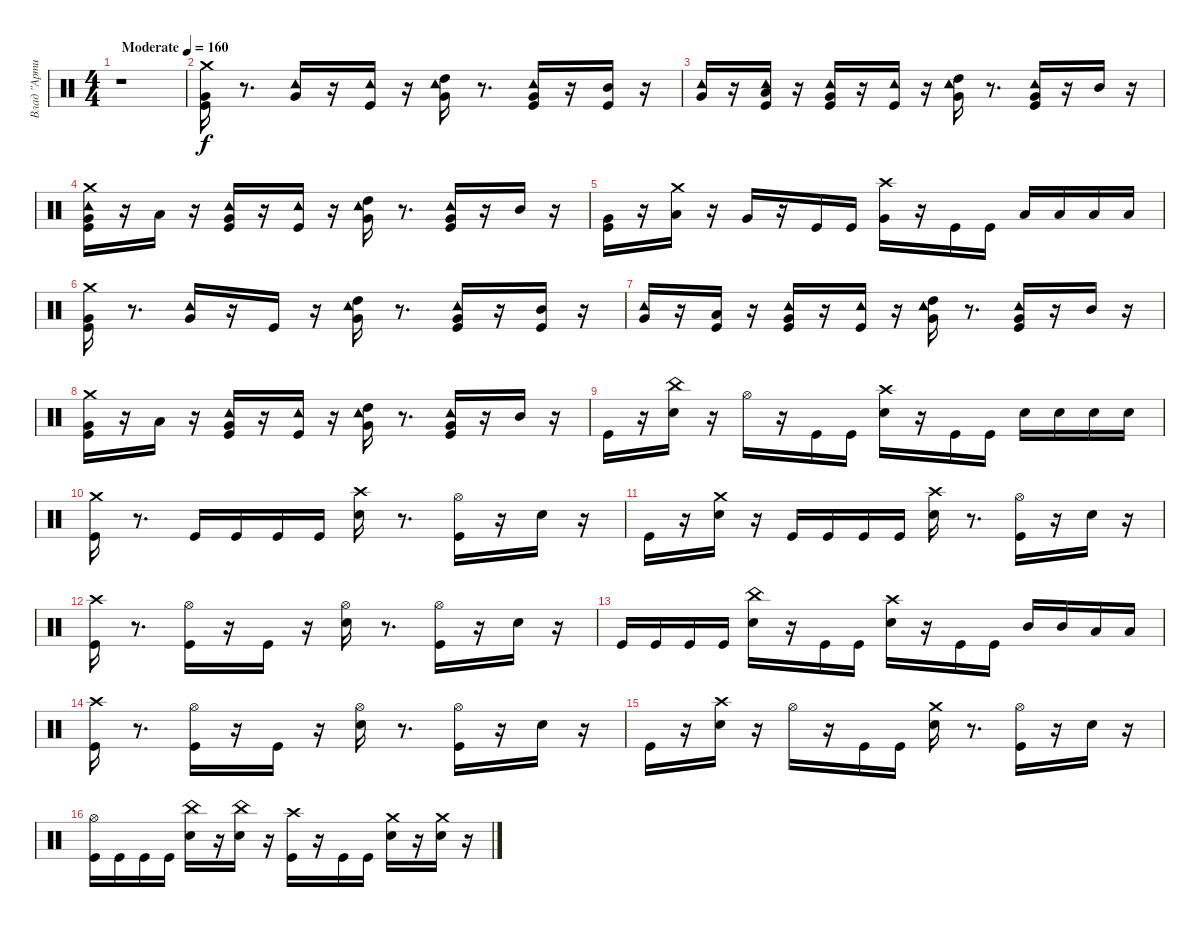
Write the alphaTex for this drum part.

\track ("Влад \"Артист\"" "Влад \"Арти") {instrument percussion}
\staff {score}
\articulation defaults
\ts (4 4)
\tempo (160 "Moderate")
\clef neutral
\ks c
r.1{dy f} |
("Crash medium (hit)" "Kick (hit)" "Very Low Tom (hit)").16 r.8{d} ("Very Low Tom (hit)" "Tambourine (hit)").16 r.16 ("Tambourine (hit)" "Kick (hit)").16 r.16 ("High Tom (hit)" "Very Low Tom (hit)" "Tambourine (hit)").16 r.8{d} ("Very Low Tom (hit)" "Kick (hit)" "Tambourine (hit)").16 r.16 ("Kick (hit)" "Mid Tom (hit)").16 r.16 |
("Very Low Tom (hit)" "Tambourine (hit)").16 r.16 ("Tambourine (hit)" "Kick (hit)" "Low Tom (hit)").16 r.16 ("Tambourine (hit)" "Kick (hit)" "Very Low Tom (hit)").16 r.16 ("Kick (hit)" "Tambourine (hit)").16 r.16 ("Tambourine (hit)" "High Tom (hit)" "Very Low Tom (hit)").16 r.8{d} ("Tambourine (hit)" "Very Low Tom (hit)" "Kick (hit)").16 r.16 "Mid Tom (hit)".16 r.16 |
("Tambourine (hit)" "Crash medium (hit)" "Kick (hit)" "Very Low Tom (hit)").16 r.16 "Low Tom (hit)".16 r.16 ("Tambourine (hit)" "Kick (hit)" "Very Low Tom (hit)").16 r.16 ("Tambourine (hit)" "Kick (hit)").16 r.16 ("Tambourine (hit)" "High Tom (hit)" "Very Low Tom (hit)").16 r.8{d} ("Tambourine (hit)" "Very Low Tom (hit)" "Kick (hit)").16 r.16 "Mid Tom (hit)".16 r.16 |
("Kick (hit)" "Very Low Tom (hit)").16 r.16 ("Crash medium (hit)" "Low Tom (hit)").16 r.16 "Very Low Tom (hit)".16 r.16 "Kick (hit)".16 "Kick (hit)".16 ("Very Low Tom (hit)" "Crash high (hit)").16 r.16 "Kick (hit)".16 "Kick (hit)".16 "Low Tom (hit)".16 "Low Tom (hit)".16 "Low Tom (hit)".16 "Low Tom (hit)".16 |
("Crash medium (hit)" "Kick (hit)" "Very Low Tom (hit)").16 r.8{d} ("Tambourine (hit)" "Very Low Tom (hit)").16 r.16 "Kick (hit)".16 r.16 ("Tambourine (hit)" "High Tom (hit)" "Very Low Tom (hit)").16 r.8{d} ("Tambourine (hit)" "Very Low Tom (hit)" "Kick (hit)").16 r.16 ("Kick (hit)" "Mid Tom (hit)").16 r.16 |
("Tambourine (hit)" "Very Low Tom (hit)").16 r.16 ("Kick (hit)" "Low Tom (hit)").16 r.16 ("Tambourine (hit)" "Kick (hit)" "Very Low Tom (hit)").16 r.16 ("Tambourine (hit)" "Kick (hit)").16 r.16 ("Tambourine (hit)" "High Tom (hit)" "Very Low Tom (hit)").16 r.8{d} ("Tambourine (hit)" "Very Low Tom (hit)" "Kick (hit)").16 r.16 "Mid Tom (hit)".16 r.16 |
("Crash medium (hit)" "Kick (hit)" "Very Low Tom (hit)").16 r.16 "Low Tom (hit)".16 r.16 ("Tambourine (hit)" "Kick (hit)" "Very Low Tom (hit)").16 r.16 ("Tambourine (hit)" "Kick (hit)").16 r.16 ("Tambourine (hit)" "High Tom (hit)" "Very Low Tom (hit)").16 r.8{d} ("Tambourine (hit)" "Very Low Tom (hit)" "Kick (hit)").16 r.16 "Mid Tom (hit)".16 r.16 |
"Kick (hit)".16 r.16 ("China (hit)" "Snare (hit) 2").16 r.16 "Hi-Hat (open)".16 r.16 "Kick (hit)".16 "Kick (hit)".16 ("Snare (hit) 2" "Crash high (hit)").16 r.16 "Kick (hit)".16 "Kick (hit)".16 "Snare (hit) 2".16 "Snare (hit) 2".16 "Snare (hit) 2".16 "Snare (hit) 2".16 |
("Crash medium (hit)" "Kick (hit)").16 r.8{d} "Kick (hit)".16 "Kick (hit)".16 "Kick (hit)".16 "Kick (hit)".16 ("Snare (hit) 2" "Crash high (hit)").16 r.8{d} ("Kick (hit)" "Hi-Hat (open)").16 r.16 "Snare (hit) 2".16 r.16 |
"Kick (hit)".16 r.16 ("Snare (hit) 2" "Crash medium (hit)").16 r.16 "Kick (hit)".16 "Kick (hit)".16 "Kick (hit)".16 "Kick (hit)".16 ("Crash high (hit)" "Snare (hit) 2").16 r.8{d} ("Kick (hit)" "Hi-Hat (open)").16 r.16 "Snare (hit) 2".16 r.16 |
("Kick (hit)" "Crash high (hit)").16 r.8{d} ("Hi-Hat (open)" "Kick (hit)").16 r.16 "Kick (hit)".16 r.16 ("Hi-Hat (open)" "Snare (hit) 2").16 r.8{d} ("Kick (hit)" "Hi-Hat (open)").16 r.16 "Snare (hit) 2".16 r.16 |
"Kick (hit)".16 "Kick (hit)".16 "Kick (hit)".16 "Kick (hit)".16 ("Snare (hit) 2" "China (hit)").16 r.16 "Kick (hit)".16 "Kick (hit)".16 ("Crash high (hit)" "Snare (hit) 2").16 r.16 "Kick (hit)".16 "Kick (hit)".16 "Mid Tom (hit)".16 "Mid Tom (hit)".16 "Low Tom (hit)".16 "Low Tom (hit)".16 |
("Crash high (hit)" "Kick (hit)").16 r.8{d} ("Hi-Hat (open)" "Kick (hit)").16 r.16 "Kick (hit)".16 r.16 ("Hi-Hat (open)" "Snare (hit) 2").16 r.8{d} ("Kick (hit)" "Hi-Hat (open)").16 r.16 "Snare (hit) 2".16 r.16 |
"Kick (hit)".16 r.16 ("Snare (hit) 2" "Crash high (hit)").16 r.16 "Hi-Hat (open)".16 r.16 "Kick (hit)".16 "Kick (hit)".16 ("Crash medium (hit)" "Snare (hit) 2").16 r.8{d} ("Kick (hit)" "Hi-Hat (open)").16 r.16 "Snare (hit) 2".16 r.16 |
("Hi-Hat (open)" "Kick (hit)").16 "Kick (hit)".16 "Kick (hit)".16 "Kick (hit)".16 ("China (hit)" "Snare (hit) 2").16 r.16 ("China (hit)" "Snare (hit) 2").16 r.16 ("Kick (hit)" "Crash high (hit)").16 r.16 "Kick (hit)".16 "Kick (hit)".16 ("Snare (hit) 2" "Crash medium (hit)").16 r.16 ("Snare (hit) 2" "Crash medium (hit)").16 r.16
